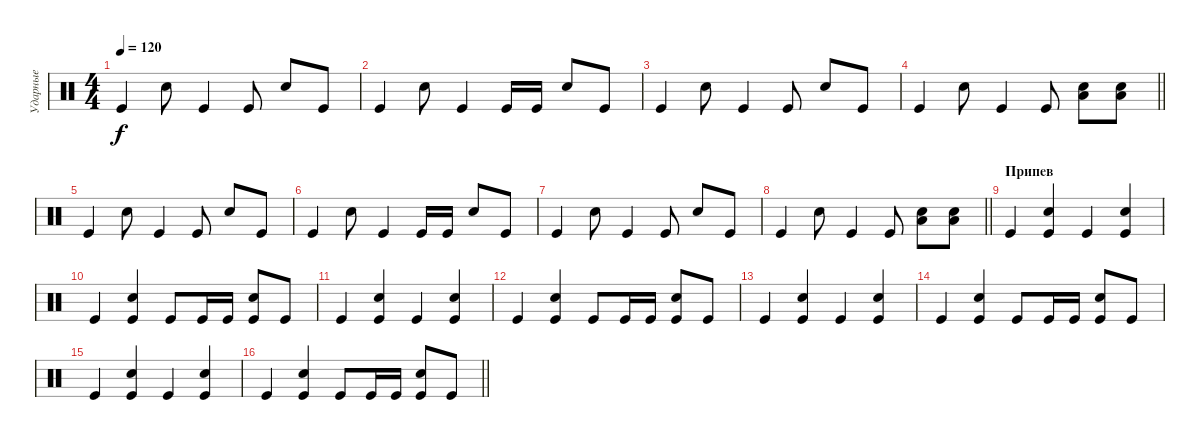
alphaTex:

\track ("Ударные" "Ударные") {instrument percussion}
\staff {score}
\articulation defaults
\ts (4 4)
\tempo 120
\clef neutral
\ks c "Kick (hit)".4{dy f} "Snare (hit) 2".8 "Kick (hit)".4 "Kick (hit)".8 "Snare (hit) 2".8 "Kick (hit)".8
|
"Kick (hit)".4 "Snare (hit) 2".8 "Kick (hit)".4 "Kick (hit)".16 "Kick (hit)".16 "Snare (hit) 2".8 "Kick (hit)".8 |
"Kick (hit)".4 "Snare (hit) 2".8 "Kick (hit)".4 "Kick (hit)".8 "Snare (hit) 2".8 "Kick (hit)".8 |
\barLineRight lightlight "Kick (hit)".4 "Snare (hit) 2".8 "Kick (hit)".4 "Kick (hit)".8
("Snare (hit) 2" "Low Floor Tom (hit)").8 ("Snare (hit) 2" "Low Floor Tom (hit)").8 |
"Kick (hit)".4 "Snare (hit) 2".8 "Kick (hit)".4 "Kick (hit)".8 "Snare (hit) 2".8 "Kick (hit)".8 |
"Kick (hit)".4 "Snare (hit) 2".8 "Kick (hit)".4 "Kick (hit)".16 "Kick (hit)".16 "Snare (hit) 2".8 "Kick (hit)".8 |
"Kick (hit)".4 "Snare (hit) 2".8 "Kick (hit)".4 "Kick (hit)".8 "Snare (hit) 2".8 "Kick (hit)".8 |
\barLineRight lightlight "Kick (hit)".4 "Snare (hit) 2".8 "Kick (hit)".4 "Kick (hit)".8
("Snare (hit) 2" "Low Floor Tom (hit)").8 ("Snare (hit) 2" "Low Floor Tom (hit)").8 |
\section ("" "Припев")
"Kick (hit)".4 ("Kick (hit)" "Snare (hit) 2").4 "Kick (hit)".4 ("Kick (hit)" "Snare (hit) 2").4 |
"Kick (hit)".4 ("Kick (hit)" "Snare (hit) 2").4 "Kick (hit)".8 "Kick (hit)".16 "Kick (hit)".16 ("Kick (hit)" "Snare (hit) 2").8 "Kick (hit)".8 |
"Kick (hit)".4 ("Kick (hit)" "Snare (hit) 2").4 "Kick (hit)".4 ("Kick (hit)" "Snare (hit) 2").4 |
"Kick (hit)".4 ("Kick (hit)" "Snare (hit) 2").4 "Kick (hit)".8 "Kick (hit)".16 "Kick (hit)".16 ("Kick (hit)" "Snare (hit) 2").8 "Kick (hit)".8 |
"Kick (hit)".4 ("Kick (hit)" "Snare (hit) 2").4 "Kick (hit)".4 ("Kick (hit)" "Snare (hit) 2").4 |
"Kick (hit)".4 ("Kick (hit)" "Snare (hit) 2").4 "Kick (hit)".8 "Kick (hit)".16 "Kick (hit)".16 ("Kick (hit)" "Snare (hit) 2").8 "Kick (hit)".8 |
"Kick (hit)".4 ("Kick (hit)" "Snare (hit) 2").4 "Kick (hit)".4 ("Kick (hit)" "Snare (hit) 2").4 |
\barLineRight lightlight "Kick (hit)".4
("Kick (hit)" "Snare (hit) 2").4 "Kick (hit)".8 "Kick (hit)".16 "Kick (hit)".16 ("Kick (hit)" "Snare (hit) 2").8 "Kick (hit)".8
